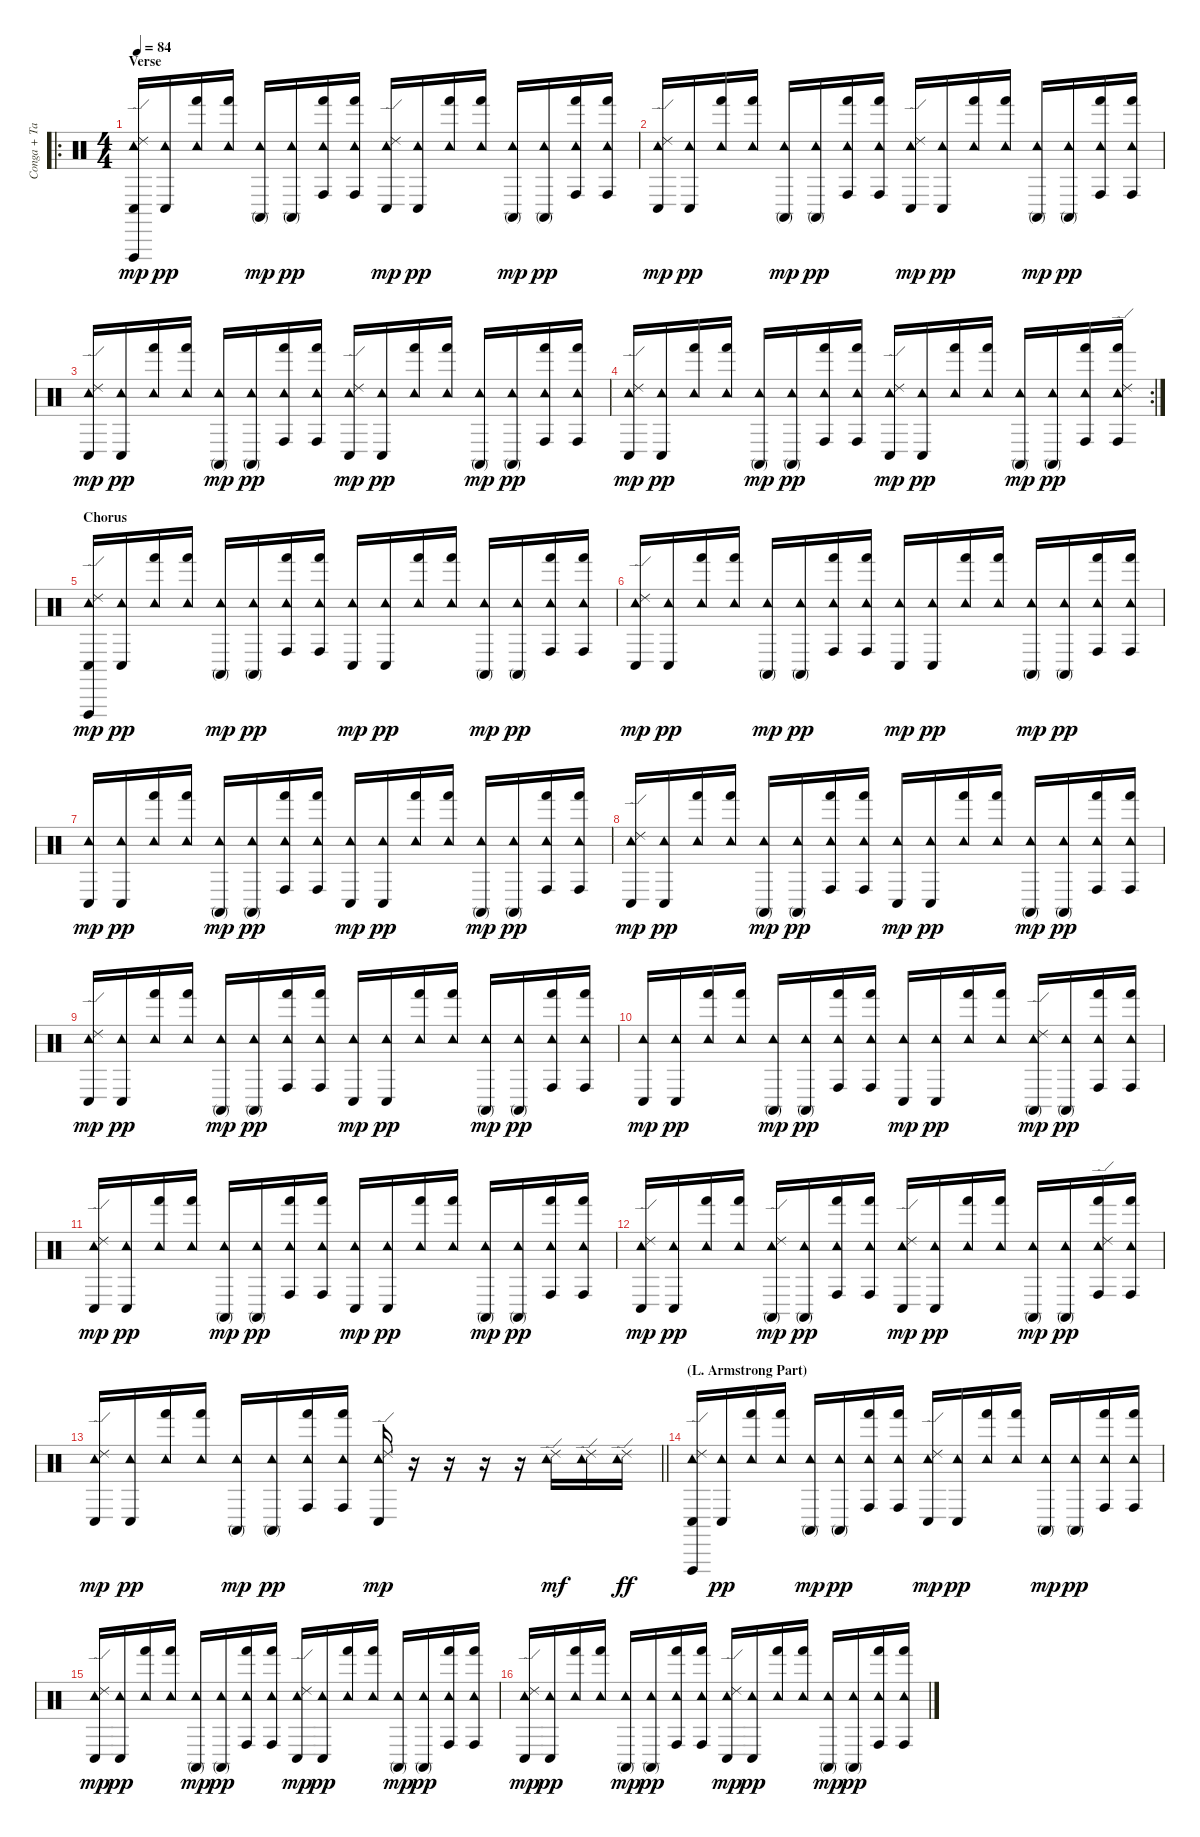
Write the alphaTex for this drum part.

\track ("Conga + Tambourine" "Conga + Ta") {instrument percussion}
\staff {score}
\articulation defaults
\ro
\ts (4 4)
\section ("" "Verse")
\tempo 84
\clef neutral
\ks c
("Conga low (hit)" "Vibraslap (hit)" "Tambourine (hit)" "Ride (edge) 2").16{dy mp} ("Conga low (hit)" "Tambourine (hit)").16{dy pp} ("Hand (hit)" "Tambourine (hit)").16 ("Hand (hit)" "Tambourine (hit)").16 ("Conga high (mute)" "Tambourine (hit)").16{dy mp} ("Conga high (mute)" "Tambourine (hit)").16{dy pp} ("Conga high (hit)" "Hand (hit)" "Tambourine (hit)").16 ("Conga high (hit)" "Hand (hit)" "Tambourine (hit)").16 ("Conga low (hit)" "Tambourine (hit)" "Ride (edge) 2").16{dy mp} ("Conga low (hit)" "Tambourine (hit)").16{dy pp} ("Hand (hit)" "Tambourine (hit)").16 ("Hand (hit)" "Tambourine (hit)").16 ("Conga high (mute)" "Tambourine (hit)").16{dy mp} ("Conga high (mute)" "Tambourine (hit)").16{dy pp} ("Conga high (hit)" "Hand (hit)" "Tambourine (hit)").16 ("Conga high (hit)" "Hand (hit)" "Tambourine (hit)").16 |
("Conga low (hit)" "Tambourine (hit)" "Ride (edge) 2").16{dy mp} ("Conga low (hit)" "Tambourine (hit)").16{dy pp} ("Hand (hit)" "Tambourine (hit)").16 ("Hand (hit)" "Tambourine (hit)").16 ("Conga high (mute)" "Tambourine (hit)").16{dy mp} ("Conga high (mute)" "Tambourine (hit)").16{dy pp} ("Conga high (hit)" "Hand (hit)" "Tambourine (hit)").16 ("Conga high (hit)" "Hand (hit)" "Tambourine (hit)").16 ("Conga low (hit)" "Tambourine (hit)" "Ride (edge) 2").16{dy mp} ("Conga low (hit)" "Tambourine (hit)").16{dy pp} ("Hand (hit)" "Tambourine (hit)").16 ("Hand (hit)" "Tambourine (hit)").16 ("Conga high (mute)" "Tambourine (hit)").16{dy mp} ("Conga high (mute)" "Tambourine (hit)").16{dy pp} ("Conga high (hit)" "Hand (hit)" "Tambourine (hit)").16 ("Conga high (hit)" "Hand (hit)" "Tambourine (hit)").16 |
("Conga low (hit)" "Tambourine (hit)" "Ride (edge) 2").16{dy mp} ("Conga low (hit)" "Tambourine (hit)").16{dy pp} ("Hand (hit)" "Tambourine (hit)").16 ("Hand (hit)" "Tambourine (hit)").16 ("Conga high (mute)" "Tambourine (hit)").16{dy mp} ("Conga high (mute)" "Tambourine (hit)").16{dy pp} ("Conga high (hit)" "Hand (hit)" "Tambourine (hit)").16 ("Conga high (hit)" "Hand (hit)" "Tambourine (hit)").16 ("Conga low (hit)" "Tambourine (hit)" "Ride (edge) 2").16{dy mp} ("Conga low (hit)" "Tambourine (hit)").16{dy pp} ("Hand (hit)" "Tambourine (hit)").16 ("Hand (hit)" "Tambourine (hit)").16 ("Conga high (mute)" "Tambourine (hit)").16{dy mp} ("Conga high (mute)" "Tambourine (hit)").16{dy pp} ("Conga high (hit)" "Hand (hit)" "Tambourine (hit)").16 ("Conga high (hit)" "Hand (hit)" "Tambourine (hit)").16 |
\rc 2
("Conga low (hit)" "Tambourine (hit)" "Ride (edge) 2").16{dy mp} ("Conga low (hit)" "Tambourine (hit)").16{dy pp} ("Hand (hit)" "Tambourine (hit)").16 ("Hand (hit)" "Tambourine (hit)").16 ("Conga high (mute)" "Tambourine (hit)").16{dy mp} ("Conga high (mute)" "Tambourine (hit)").16{dy pp} ("Conga high (hit)" "Hand (hit)" "Tambourine (hit)").16 ("Conga high (hit)" "Hand (hit)" "Tambourine (hit)").16 ("Conga low (hit)" "Tambourine (hit)" "Ride (edge) 2").16{dy mp} ("Conga low (hit)" "Tambourine (hit)").16{dy pp} ("Hand (hit)" "Tambourine (hit)").16 ("Hand (hit)" "Tambourine (hit)").16 ("Conga high (mute)" "Tambourine (hit)").16{dy mp} ("Conga high (mute)" "Tambourine (hit)").16{dy pp} ("Conga high (hit)" "Hand (hit)" "Tambourine (hit)").16 ("Conga high (hit)" "Hand (hit)" "Tambourine (hit)" "Ride (edge) 2").16 |
\section ("" "Chorus")
("Conga low (hit)" "Vibraslap (hit)" "Tambourine (hit)" "Ride (edge) 2").16{dy mp} ("Conga low (hit)" "Tambourine (hit)").16{dy pp} ("Hand (hit)" "Tambourine (hit)").16 ("Hand (hit)" "Tambourine (hit)").16 ("Conga high (mute)" "Tambourine (hit)").16{dy mp} ("Conga high (mute)" "Tambourine (hit)").16{dy pp} ("Conga high (hit)" "Hand (hit)" "Tambourine (hit)").16 ("Conga high (hit)" "Hand (hit)" "Tambourine (hit)").16 ("Conga low (hit)" "Tambourine (hit)").16{dy mp} ("Conga low (hit)" "Tambourine (hit)").16{dy pp} ("Hand (hit)" "Tambourine (hit)").16 ("Hand (hit)" "Tambourine (hit)").16 ("Conga high (mute)" "Tambourine (hit)").16{dy mp} ("Conga high (mute)" "Tambourine (hit)").16{dy pp} ("Conga high (hit)" "Hand (hit)" "Tambourine (hit)").16 ("Conga high (hit)" "Hand (hit)" "Tambourine (hit)").16 |
("Conga low (hit)" "Tambourine (hit)" "Ride (edge) 2").16{dy mp} ("Conga low (hit)" "Tambourine (hit)").16{dy pp} ("Hand (hit)" "Tambourine (hit)").16 ("Hand (hit)" "Tambourine (hit)").16 ("Conga high (mute)" "Tambourine (hit)").16{dy mp} ("Conga high (mute)" "Tambourine (hit)").16{dy pp} ("Conga high (hit)" "Hand (hit)" "Tambourine (hit)").16 ("Conga high (hit)" "Hand (hit)" "Tambourine (hit)").16 ("Conga low (hit)" "Tambourine (hit)").16{dy mp} ("Conga low (hit)" "Tambourine (hit)").16{dy pp} ("Hand (hit)" "Tambourine (hit)").16 ("Hand (hit)" "Tambourine (hit)").16 ("Conga high (mute)" "Tambourine (hit)").16{dy mp} ("Conga high (mute)" "Tambourine (hit)").16{dy pp} ("Conga high (hit)" "Hand (hit)" "Tambourine (hit)").16 ("Conga high (hit)" "Hand (hit)" "Tambourine (hit)").16 |
("Conga low (hit)" "Tambourine (hit)").16{dy mp} ("Conga low (hit)" "Tambourine (hit)").16{dy pp} ("Hand (hit)" "Tambourine (hit)").16 ("Hand (hit)" "Tambourine (hit)").16 ("Conga high (mute)" "Tambourine (hit)").16{dy mp} ("Conga high (mute)" "Tambourine (hit)").16{dy pp} ("Conga high (hit)" "Hand (hit)" "Tambourine (hit)").16 ("Conga high (hit)" "Hand (hit)" "Tambourine (hit)").16 ("Conga low (hit)" "Tambourine (hit)").16{dy mp} ("Conga low (hit)" "Tambourine (hit)").16{dy pp} ("Hand (hit)" "Tambourine (hit)").16 ("Hand (hit)" "Tambourine (hit)").16 ("Conga high (mute)" "Tambourine (hit)").16{dy mp} ("Conga high (mute)" "Tambourine (hit)").16{dy pp} ("Conga high (hit)" "Hand (hit)" "Tambourine (hit)").16 ("Conga high (hit)" "Hand (hit)" "Tambourine (hit)").16 |
("Conga low (hit)" "Tambourine (hit)" "Ride (edge) 2").16{dy mp} ("Conga low (hit)" "Tambourine (hit)").16{dy pp} ("Hand (hit)" "Tambourine (hit)").16 ("Hand (hit)" "Tambourine (hit)").16 ("Conga high (mute)" "Tambourine (hit)").16{dy mp} ("Conga high (mute)" "Tambourine (hit)").16{dy pp} ("Conga high (hit)" "Hand (hit)" "Tambourine (hit)").16 ("Conga high (hit)" "Hand (hit)" "Tambourine (hit)").16 ("Conga low (hit)" "Tambourine (hit)").16{dy mp} ("Conga low (hit)" "Tambourine (hit)").16{dy pp} ("Hand (hit)" "Tambourine (hit)").16 ("Hand (hit)" "Tambourine (hit)").16 ("Conga high (mute)" "Tambourine (hit)").16{dy mp} ("Conga high (mute)" "Tambourine (hit)").16{dy pp} ("Conga high (hit)" "Hand (hit)" "Tambourine (hit)").16 ("Conga high (hit)" "Hand (hit)" "Tambourine (hit)").16 |
("Conga low (hit)" "Tambourine (hit)" "Ride (edge) 2").16{dy mp} ("Conga low (hit)" "Tambourine (hit)").16{dy pp} ("Hand (hit)" "Tambourine (hit)").16 ("Hand (hit)" "Tambourine (hit)").16 ("Conga high (mute)" "Tambourine (hit)").16{dy mp} ("Conga high (mute)" "Tambourine (hit)").16{dy pp} ("Conga high (hit)" "Hand (hit)" "Tambourine (hit)").16 ("Conga high (hit)" "Hand (hit)" "Tambourine (hit)").16 ("Conga low (hit)" "Tambourine (hit)").16{dy mp} ("Conga low (hit)" "Tambourine (hit)").16{dy pp} ("Hand (hit)" "Tambourine (hit)").16 ("Hand (hit)" "Tambourine (hit)").16 ("Conga high (mute)" "Tambourine (hit)").16{dy mp} ("Conga high (mute)" "Tambourine (hit)").16{dy pp} ("Conga high (hit)" "Hand (hit)" "Tambourine (hit)").16 ("Conga high (hit)" "Hand (hit)" "Tambourine (hit)").16 |
("Conga low (hit)" "Tambourine (hit)").16{dy mp} ("Conga low (hit)" "Tambourine (hit)").16{dy pp} ("Hand (hit)" "Tambourine (hit)").16 ("Hand (hit)" "Tambourine (hit)").16 ("Conga high (mute)" "Tambourine (hit)").16{dy mp} ("Conga high (mute)" "Tambourine (hit)").16{dy pp} ("Conga high (hit)" "Hand (hit)" "Tambourine (hit)").16 ("Conga high (hit)" "Hand (hit)" "Tambourine (hit)").16 ("Conga low (hit)" "Tambourine (hit)").16{dy mp} ("Conga low (hit)" "Tambourine (hit)").16{dy pp} ("Hand (hit)" "Tambourine (hit)").16 ("Hand (hit)" "Tambourine (hit)").16 ("Conga high (mute)" "Tambourine (hit)" "Ride (edge) 2").16{dy mp} ("Conga high (mute)" "Tambourine (hit)").16{dy pp} ("Conga high (hit)" "Hand (hit)" "Tambourine (hit)").16 ("Conga high (hit)" "Hand (hit)" "Tambourine (hit)").16 |
("Conga low (hit)" "Tambourine (hit)" "Ride (edge) 2").16{dy mp} ("Conga low (hit)" "Tambourine (hit)").16{dy pp} ("Hand (hit)" "Tambourine (hit)").16 ("Hand (hit)" "Tambourine (hit)").16 ("Conga high (mute)" "Tambourine (hit)").16{dy mp} ("Conga high (mute)" "Tambourine (hit)").16{dy pp} ("Conga high (hit)" "Hand (hit)" "Tambourine (hit)").16 ("Conga high (hit)" "Hand (hit)" "Tambourine (hit)").16 ("Conga low (hit)" "Tambourine (hit)").16{dy mp} ("Conga low (hit)" "Tambourine (hit)").16{dy pp} ("Hand (hit)" "Tambourine (hit)").16 ("Hand (hit)" "Tambourine (hit)").16 ("Conga high (mute)" "Tambourine (hit)").16{dy mp} ("Conga high (mute)" "Tambourine (hit)").16{dy pp} ("Conga high (hit)" "Hand (hit)" "Tambourine (hit)").16 ("Conga high (hit)" "Hand (hit)" "Tambourine (hit)").16 |
("Conga low (hit)" "Tambourine (hit)" "Ride (edge) 2").16{dy mp} ("Conga low (hit)" "Tambourine (hit)").16{dy pp} ("Hand (hit)" "Tambourine (hit)").16 ("Hand (hit)" "Tambourine (hit)").16 ("Conga high (mute)" "Tambourine (hit)" "Ride (edge) 2").16{dy mp} ("Conga high (mute)" "Tambourine (hit)").16{dy pp} ("Conga high (hit)" "Hand (hit)" "Tambourine (hit)").16 ("Conga high (hit)" "Hand (hit)" "Tambourine (hit)").16 ("Conga low (hit)" "Tambourine (hit)" "Ride (edge) 2").16{dy mp} ("Conga low (hit)" "Tambourine (hit)").16{dy pp} ("Hand (hit)" "Tambourine (hit)").16 ("Hand (hit)" "Tambourine (hit)").16 ("Conga high (mute)" "Tambourine (hit)").16{dy mp} ("Conga high (mute)" "Tambourine (hit)").16{dy pp} ("Conga high (hit)" "Hand (hit)" "Tambourine (hit)" "Ride (edge) 2").16 ("Conga high (hit)" "Hand (hit)" "Tambourine (hit)").16 |
\barLineRight lightlight
("Conga low (hit)" "Tambourine (hit)" "Ride (edge) 2").16{dy mp} ("Conga low (hit)" "Tambourine (hit)").16{dy pp} ("Hand (hit)" "Tambourine (hit)").16 ("Hand (hit)" "Tambourine (hit)").16 ("Conga high (mute)" "Tambourine (hit)").16{dy mp} ("Conga high (mute)" "Tambourine (hit)").16{dy pp} ("Conga high (hit)" "Hand (hit)" "Tambourine (hit)").16 ("Conga high (hit)" "Hand (hit)" "Tambourine (hit)").16 ("Conga low (hit)" "Tambourine (hit)" "Ride (edge) 2").16{dy mp} r.16 r.16 r.16 r.16 ("Tambourine (hit)" "Ride (edge) 2").16{dy mf} ("Tambourine (hit)" "Ride (edge) 2").16 ("Tambourine (hit)" "Ride (edge) 2").16{dy ff} |
\section ("" "(L. Armstrong Part)")
("Conga low (hit)" "Vibraslap (hit)" "Tambourine (hit)" "Ride (edge) 2").16 ("Conga low (hit)" "Tambourine (hit)").16{dy pp} ("Hand (hit)" "Tambourine (hit)").16 ("Hand (hit)" "Tambourine (hit)").16 ("Conga high (mute)" "Tambourine (hit)").16{dy mp} ("Conga high (mute)" "Tambourine (hit)").16{dy pp} ("Conga high (hit)" "Hand (hit)" "Tambourine (hit)").16 ("Conga high (hit)" "Hand (hit)" "Tambourine (hit)").16 ("Conga low (hit)" "Tambourine (hit)" "Ride (edge) 2").16{dy mp} ("Conga low (hit)" "Tambourine (hit)").16{dy pp} ("Hand (hit)" "Tambourine (hit)").16 ("Hand (hit)" "Tambourine (hit)").16 ("Conga high (mute)" "Tambourine (hit)").16{dy mp} ("Conga high (mute)" "Tambourine (hit)").16{dy pp} ("Conga high (hit)" "Hand (hit)" "Tambourine (hit)").16 ("Conga high (hit)" "Hand (hit)" "Tambourine (hit)").16 |
("Conga low (hit)" "Tambourine (hit)" "Ride (edge) 2").16{dy mp} ("Conga low (hit)" "Tambourine (hit)").16{dy pp} ("Hand (hit)" "Tambourine (hit)").16 ("Hand (hit)" "Tambourine (hit)").16 ("Conga high (mute)" "Tambourine (hit)").16{dy mp} ("Conga high (mute)" "Tambourine (hit)").16{dy pp} ("Conga high (hit)" "Hand (hit)" "Tambourine (hit)").16 ("Conga high (hit)" "Hand (hit)" "Tambourine (hit)").16 ("Conga low (hit)" "Tambourine (hit)" "Ride (edge) 2").16{dy mp} ("Conga low (hit)" "Tambourine (hit)").16{dy pp} ("Hand (hit)" "Tambourine (hit)").16 ("Hand (hit)" "Tambourine (hit)").16 ("Conga high (mute)" "Tambourine (hit)").16{dy mp} ("Conga high (mute)" "Tambourine (hit)").16{dy pp} ("Conga high (hit)" "Hand (hit)" "Tambourine (hit)").16 ("Conga high (hit)" "Hand (hit)" "Tambourine (hit)").16 |
("Conga low (hit)" "Tambourine (hit)" "Ride (edge) 2").16{dy mp} ("Conga low (hit)" "Tambourine (hit)").16{dy pp} ("Hand (hit)" "Tambourine (hit)").16 ("Hand (hit)" "Tambourine (hit)").16 ("Conga high (mute)" "Tambourine (hit)").16{dy mp} ("Conga high (mute)" "Tambourine (hit)").16{dy pp} ("Conga high (hit)" "Hand (hit)" "Tambourine (hit)").16 ("Conga high (hit)" "Hand (hit)" "Tambourine (hit)").16 ("Conga low (hit)" "Tambourine (hit)" "Ride (edge) 2").16{dy mp} ("Conga low (hit)" "Tambourine (hit)").16{dy pp} ("Hand (hit)" "Tambourine (hit)").16 ("Hand (hit)" "Tambourine (hit)").16 ("Conga high (mute)" "Tambourine (hit)").16{dy mp} ("Conga high (mute)" "Tambourine (hit)").16{dy pp} ("Conga high (hit)" "Hand (hit)" "Tambourine (hit)").16 ("Conga high (hit)" "Hand (hit)" "Tambourine (hit)").16
